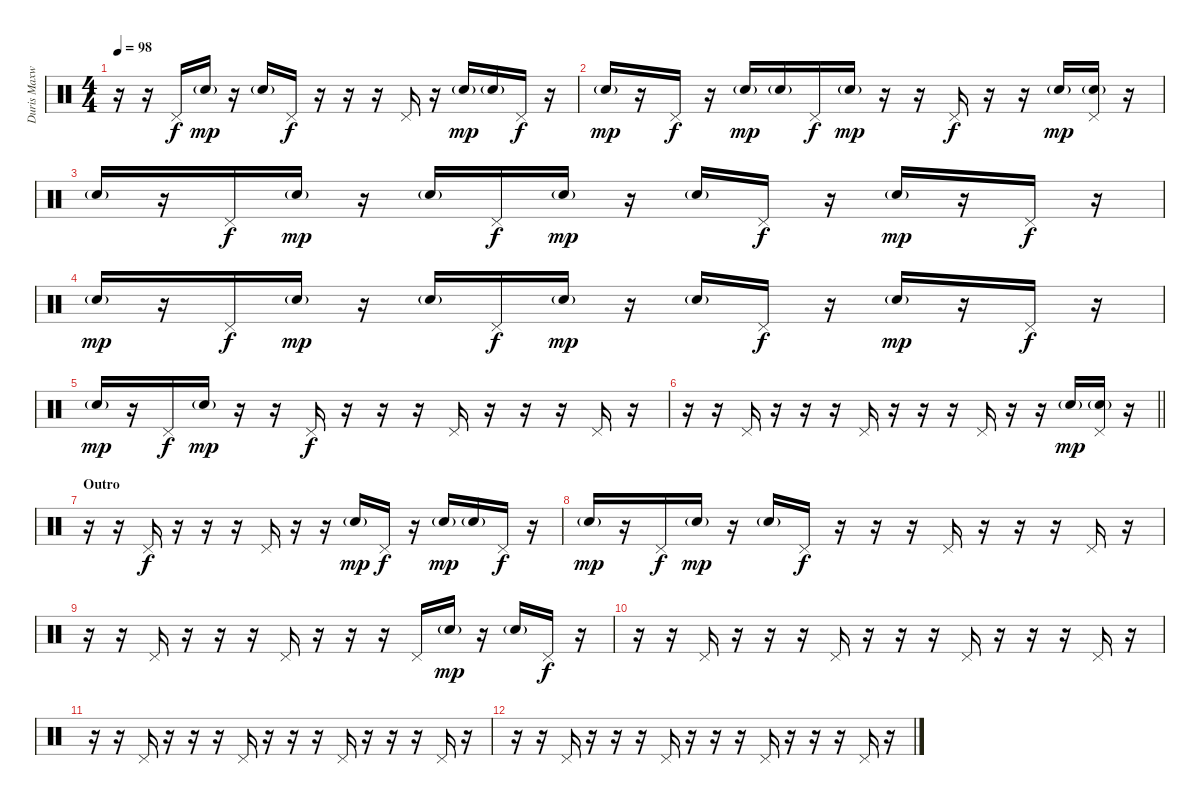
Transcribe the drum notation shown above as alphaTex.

\track ("Duris Maxwell" "Duris Maxw") {instrument percussion}
\staff {score}
\articulation defaults
\ts (4 4)
\tempo 98
\clef neutral
\ks c
r.16{dy mp} r.16 "Pedal Hi-Hat (hit)".16{dy f} "Snare (hit) 2"{g}.16{dy mp} r.16 "Snare (hit) 2"{g}.16 "Pedal Hi-Hat (hit)".16{dy f} r.16 r.16 r.16 "Pedal Hi-Hat (hit)".16 r.16 "Snare (hit) 2"{g}.16{dy mp} "Snare (hit) 2"{g}.16 "Pedal Hi-Hat (hit)".16{dy f} r.16 |
"Snare (hit) 2"{g}.16{dy mp} r.16 "Pedal Hi-Hat (hit)".16{dy f} r.16 "Snare (hit) 2"{g}.16{dy mp} "Snare (hit) 2"{g}.16 "Pedal Hi-Hat (hit)".16{dy f} "Snare (hit) 2"{g}.16{dy mp} r.16 r.16 "Pedal Hi-Hat (hit)".16{dy f} r.16 r.16 "Snare (hit) 2"{g}.16{dy mp} ("Pedal Hi-Hat (hit)" "Snare (hit) 2"{g}).16 r.16 |
"Snare (hit) 2"{g}.16 r.16 "Pedal Hi-Hat (hit)".16{dy f} "Snare (hit) 2"{g}.16{dy mp} r.16 "Snare (hit) 2"{g}.16 "Pedal Hi-Hat (hit)".16{dy f} "Snare (hit) 2"{g}.16{dy mp} r.16 "Snare (hit) 2"{g}.16 "Pedal Hi-Hat (hit)".16{dy f} r.16 "Snare (hit) 2"{g}.16{dy mp} r.16 "Pedal Hi-Hat (hit)".16{dy f} r.16 |
"Snare (hit) 2"{g}.16{dy mp} r.16 "Pedal Hi-Hat (hit)".16{dy f} "Snare (hit) 2"{g}.16{dy mp} r.16 "Snare (hit) 2"{g}.16 "Pedal Hi-Hat (hit)".16{dy f} "Snare (hit) 2"{g}.16{dy mp} r.16 "Snare (hit) 2"{g}.16 "Pedal Hi-Hat (hit)".16{dy f} r.16 "Snare (hit) 2"{g}.16{dy mp} r.16 "Pedal Hi-Hat (hit)".16{dy f} r.16 |
"Snare (hit) 2"{g}.16{dy mp} r.16 "Pedal Hi-Hat (hit)".16{dy f} "Snare (hit) 2"{g}.16{dy mp} r.16 r.16 "Pedal Hi-Hat (hit)".16{dy f} r.16 r.16 r.16 "Pedal Hi-Hat (hit)".16 r.16 r.16 r.16 "Pedal Hi-Hat (hit)".16 r.16 |
\barLineRight lightlight
r.16 r.16 "Pedal Hi-Hat (hit)".16 r.16 r.16 r.16 "Pedal Hi-Hat (hit)".16 r.16 r.16 r.16 "Pedal Hi-Hat (hit)".16 r.16 r.16 "Snare (hit) 2"{g}.16{dy mp} ("Pedal Hi-Hat (hit)" "Snare (hit) 2"{g}).16 r.16 |
\section ("" "Outro")
r.16 r.16 "Pedal Hi-Hat (hit)".16{dy f} r.16 r.16 r.16 "Pedal Hi-Hat (hit)".16 r.16 r.16 "Snare (hit) 2"{g}.16{dy mp} "Pedal Hi-Hat (hit)".16{dy f} r.16 "Snare (hit) 2"{g}.16{dy mp} "Snare (hit) 2"{g}.16 "Pedal Hi-Hat (hit)".16{dy f} r.16 |
"Snare (hit) 2"{g}.16{dy mp} r.16 "Pedal Hi-Hat (hit)".16{dy f} "Snare (hit) 2"{g}.16{dy mp} r.16 "Snare (hit) 2"{g}.16 "Pedal Hi-Hat (hit)".16{dy f} r.16 r.16 r.16 "Pedal Hi-Hat (hit)".16 r.16 r.16 r.16 "Pedal Hi-Hat (hit)".16 r.16 |
r.16 r.16 "Pedal Hi-Hat (hit)".16 r.16 r.16 r.16 "Pedal Hi-Hat (hit)".16 r.16 r.16 r.16 "Pedal Hi-Hat (hit)".16 "Snare (hit) 2"{g}.16{dy mp} r.16 "Snare (hit) 2"{g}.16 "Pedal Hi-Hat (hit)".16{dy f} r.16 |
r.16 r.16 "Pedal Hi-Hat (hit)".16 r.16 r.16 r.16 "Pedal Hi-Hat (hit)".16 r.16 r.16 r.16 "Pedal Hi-Hat (hit)".16 r.16 r.16 r.16 "Pedal Hi-Hat (hit)".16 r.16 |
r.16 r.16 "Pedal Hi-Hat (hit)".16 r.16 r.16 r.16 "Pedal Hi-Hat (hit)".16 r.16 r.16 r.16 "Pedal Hi-Hat (hit)".16 r.16 r.16 r.16 "Pedal Hi-Hat (hit)".16 r.16 |
r.16 r.16 "Pedal Hi-Hat (hit)".16 r.16 r.16 r.16 "Pedal Hi-Hat (hit)".16 r.16 r.16 r.16 "Pedal Hi-Hat (hit)".16 r.16 r.16 r.16 "Pedal Hi-Hat (hit)".16 r.16
